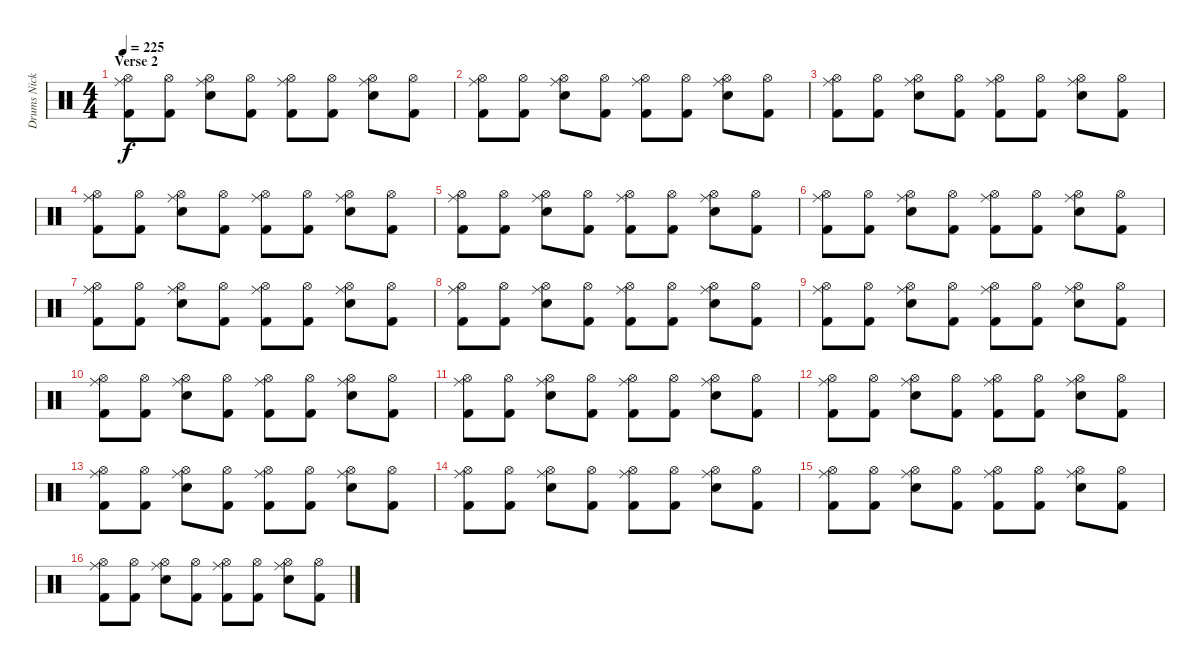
\track ("Drums Nicko McBrain" "Drums Nick") {instrument percussion}
\staff {score}
\articulation defaults
\ts (4 4)
\section ("" "Verse 2")
\tempo 220
\tempo 225
\clef neutral
\ks c
("Hi-Hat (open)" "Ride (middle)" "Kick (hit) 2").8{dy f} ("Hi-Hat (open)" "Kick (hit) 2").8 ("Hi-Hat (open)" "Ride (middle)" "Snare (hit) 2").8 ("Hi-Hat (open)" "Kick (hit) 2").8 ("Hi-Hat (open)" "Ride (middle)" "Kick (hit) 2").8 ("Hi-Hat (open)" "Kick (hit) 2").8 ("Hi-Hat (open)" "Ride (middle)" "Snare (hit) 2").8 ("Hi-Hat (open)" "Kick (hit) 2").8 |
("Hi-Hat (open)" "Ride (middle)" "Kick (hit) 2").8 ("Hi-Hat (open)" "Kick (hit) 2").8 ("Hi-Hat (open)" "Ride (middle)" "Snare (hit) 2").8 ("Hi-Hat (open)" "Kick (hit) 2").8 ("Hi-Hat (open)" "Ride (middle)" "Kick (hit) 2").8 ("Hi-Hat (open)" "Kick (hit) 2").8 ("Hi-Hat (open)" "Ride (middle)" "Snare (hit) 2").8 ("Hi-Hat (open)" "Kick (hit) 2").8 |
("Hi-Hat (open)" "Ride (middle)" "Kick (hit) 2").8 ("Hi-Hat (open)" "Kick (hit) 2").8 ("Hi-Hat (open)" "Ride (middle)" "Snare (hit) 2").8 ("Hi-Hat (open)" "Kick (hit) 2").8 ("Hi-Hat (open)" "Ride (middle)" "Kick (hit) 2").8 ("Hi-Hat (open)" "Kick (hit) 2").8 ("Hi-Hat (open)" "Ride (middle)" "Snare (hit) 2").8 ("Hi-Hat (open)" "Kick (hit) 2").8 |
("Hi-Hat (open)" "Ride (middle)" "Kick (hit) 2").8 ("Hi-Hat (open)" "Kick (hit) 2").8 ("Hi-Hat (open)" "Ride (middle)" "Snare (hit) 2").8 ("Hi-Hat (open)" "Kick (hit) 2").8 ("Hi-Hat (open)" "Ride (middle)" "Kick (hit) 2").8 ("Hi-Hat (open)" "Kick (hit) 2").8 ("Hi-Hat (open)" "Ride (middle)" "Snare (hit) 2").8 ("Hi-Hat (open)" "Kick (hit) 2").8 |
("Hi-Hat (open)" "Ride (middle)" "Kick (hit) 2").8 ("Hi-Hat (open)" "Kick (hit) 2").8 ("Hi-Hat (open)" "Ride (middle)" "Snare (hit) 2").8 ("Hi-Hat (open)" "Kick (hit) 2").8 ("Hi-Hat (open)" "Ride (middle)" "Kick (hit) 2").8 ("Hi-Hat (open)" "Kick (hit) 2").8 ("Hi-Hat (open)" "Ride (middle)" "Snare (hit) 2").8 ("Hi-Hat (open)" "Kick (hit) 2").8 |
("Hi-Hat (open)" "Ride (middle)" "Kick (hit) 2").8 ("Hi-Hat (open)" "Kick (hit) 2").8 ("Hi-Hat (open)" "Ride (middle)" "Snare (hit) 2").8 ("Hi-Hat (open)" "Kick (hit) 2").8 ("Hi-Hat (open)" "Ride (middle)" "Kick (hit) 2").8 ("Hi-Hat (open)" "Kick (hit) 2").8 ("Hi-Hat (open)" "Ride (middle)" "Snare (hit) 2").8 ("Hi-Hat (open)" "Kick (hit) 2").8 |
("Hi-Hat (open)" "Ride (middle)" "Kick (hit) 2").8 ("Hi-Hat (open)" "Kick (hit) 2").8 ("Hi-Hat (open)" "Ride (middle)" "Snare (hit) 2").8 ("Hi-Hat (open)" "Kick (hit) 2").8 ("Hi-Hat (open)" "Ride (middle)" "Kick (hit) 2").8 ("Hi-Hat (open)" "Kick (hit) 2").8 ("Hi-Hat (open)" "Ride (middle)" "Snare (hit) 2").8 ("Hi-Hat (open)" "Kick (hit) 2").8 |
("Hi-Hat (open)" "Ride (middle)" "Kick (hit) 2").8 ("Hi-Hat (open)" "Kick (hit) 2").8 ("Hi-Hat (open)" "Ride (middle)" "Snare (hit) 2").8 ("Hi-Hat (open)" "Kick (hit) 2").8 ("Hi-Hat (open)" "Ride (middle)" "Kick (hit) 2").8 ("Hi-Hat (open)" "Kick (hit) 2").8 ("Hi-Hat (open)" "Ride (middle)" "Snare (hit) 2").8 ("Hi-Hat (open)" "Kick (hit) 2").8 |
("Hi-Hat (open)" "Ride (middle)" "Kick (hit) 2").8 ("Hi-Hat (open)" "Kick (hit) 2").8 ("Hi-Hat (open)" "Ride (middle)" "Snare (hit) 2").8 ("Hi-Hat (open)" "Kick (hit) 2").8 ("Hi-Hat (open)" "Ride (middle)" "Kick (hit) 2").8 ("Hi-Hat (open)" "Kick (hit) 2").8 ("Hi-Hat (open)" "Ride (middle)" "Snare (hit) 2").8 ("Hi-Hat (open)" "Kick (hit) 2").8 |
("Hi-Hat (open)" "Ride (middle)" "Kick (hit) 2").8 ("Hi-Hat (open)" "Kick (hit) 2").8 ("Hi-Hat (open)" "Ride (middle)" "Snare (hit) 2").8 ("Hi-Hat (open)" "Kick (hit) 2").8 ("Hi-Hat (open)" "Ride (middle)" "Kick (hit) 2").8 ("Hi-Hat (open)" "Kick (hit) 2").8 ("Hi-Hat (open)" "Ride (middle)" "Snare (hit) 2").8 ("Hi-Hat (open)" "Kick (hit) 2").8 |
("Hi-Hat (open)" "Ride (middle)" "Kick (hit) 2").8 ("Hi-Hat (open)" "Kick (hit) 2").8 ("Hi-Hat (open)" "Ride (middle)" "Snare (hit) 2").8 ("Hi-Hat (open)" "Kick (hit) 2").8 ("Hi-Hat (open)" "Ride (middle)" "Kick (hit) 2").8 ("Hi-Hat (open)" "Kick (hit) 2").8 ("Hi-Hat (open)" "Ride (middle)" "Snare (hit) 2").8 ("Hi-Hat (open)" "Kick (hit) 2").8 |
("Hi-Hat (open)" "Ride (middle)" "Kick (hit) 2").8 ("Hi-Hat (open)" "Kick (hit) 2").8 ("Hi-Hat (open)" "Ride (middle)" "Snare (hit) 2").8 ("Hi-Hat (open)" "Kick (hit) 2").8 ("Hi-Hat (open)" "Ride (middle)" "Kick (hit) 2").8 ("Hi-Hat (open)" "Kick (hit) 2").8 ("Hi-Hat (open)" "Ride (middle)" "Snare (hit) 2").8 ("Hi-Hat (open)" "Kick (hit) 2").8 |
("Hi-Hat (open)" "Ride (middle)" "Kick (hit) 2").8 ("Hi-Hat (open)" "Kick (hit) 2").8 ("Hi-Hat (open)" "Ride (middle)" "Snare (hit) 2").8 ("Hi-Hat (open)" "Kick (hit) 2").8 ("Hi-Hat (open)" "Ride (middle)" "Kick (hit) 2").8 ("Hi-Hat (open)" "Kick (hit) 2").8 ("Hi-Hat (open)" "Ride (middle)" "Snare (hit) 2").8 ("Hi-Hat (open)" "Kick (hit) 2").8 |
("Hi-Hat (open)" "Ride (middle)" "Kick (hit) 2").8 ("Hi-Hat (open)" "Kick (hit) 2").8 ("Hi-Hat (open)" "Ride (middle)" "Snare (hit) 2").8 ("Hi-Hat (open)" "Kick (hit) 2").8 ("Hi-Hat (open)" "Ride (middle)" "Kick (hit) 2").8 ("Hi-Hat (open)" "Kick (hit) 2").8 ("Hi-Hat (open)" "Ride (middle)" "Snare (hit) 2").8 ("Hi-Hat (open)" "Kick (hit) 2").8 |
("Hi-Hat (open)" "Ride (middle)" "Kick (hit) 2").8 ("Hi-Hat (open)" "Kick (hit) 2").8 ("Hi-Hat (open)" "Ride (middle)" "Snare (hit) 2").8 ("Hi-Hat (open)" "Kick (hit) 2").8 ("Hi-Hat (open)" "Ride (middle)" "Kick (hit) 2").8 ("Hi-Hat (open)" "Kick (hit) 2").8 ("Hi-Hat (open)" "Ride (middle)" "Snare (hit) 2").8 ("Hi-Hat (open)" "Kick (hit) 2").8 |
("Hi-Hat (open)" "Ride (middle)" "Kick (hit) 2").8 ("Hi-Hat (open)" "Kick (hit) 2").8 ("Hi-Hat (open)" "Ride (middle)" "Snare (hit) 2").8 ("Hi-Hat (open)" "Kick (hit) 2").8 ("Hi-Hat (open)" "Ride (middle)" "Kick (hit) 2").8 ("Hi-Hat (open)" "Kick (hit) 2").8 ("Hi-Hat (open)" "Ride (middle)" "Snare (hit) 2").8 ("Hi-Hat (open)" "Kick (hit) 2").8
